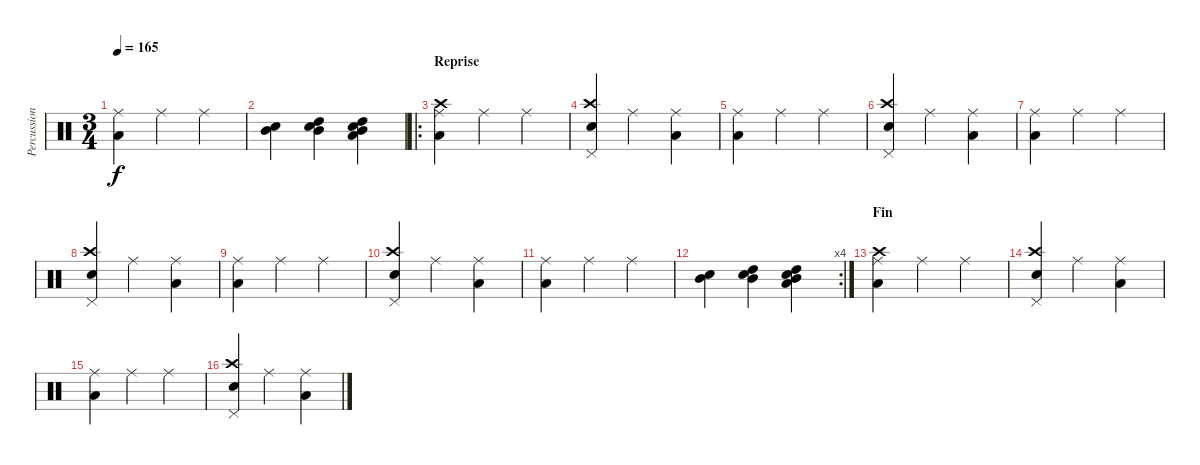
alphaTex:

\track ("Percussions" "Percussion") {instrument percussion}
\staff {score}
\articulation defaults
\ts (3 4)
\tempo 165
\clef neutral
\ks c
("Ride (middle)" "Low Floor Tom (hit)").4{dy f} "Ride (middle)".4 "Ride (middle)".4 |
("Mid Tom (hit)" "Snare (hit) 2").4 ("High Tom (hit)" "Mid Tom (hit)" "Snare (hit) 2").4 ("High Tom (hit)" "Mid Tom (hit)" "Snare (hit) 2" "Low Floor Tom (hit)").4 |
\ro
\section ("" "Reprise")
("Crash high (hit)" "Ride (middle)" "Low Floor Tom (hit)").4 "Ride (middle)".4 "Ride (middle)".4 |
("Crash high (hit)" "Snare (hit) 2" "Pedal Hi-Hat (hit)").4 "Ride (middle)".4 ("Ride (middle)" "Low Floor Tom (hit)").4 |
("Ride (middle)" "Low Floor Tom (hit)").4 "Ride (middle)".4 "Ride (middle)".4 |
("Crash high (hit)" "Snare (hit) 2" "Pedal Hi-Hat (hit)").4 "Ride (middle)".4 ("Ride (middle)" "Low Floor Tom (hit)").4 |
("Ride (middle)" "Low Floor Tom (hit)").4 "Ride (middle)".4 "Ride (middle)".4 |
("Crash high (hit)" "Snare (hit) 2" "Pedal Hi-Hat (hit)").4 "Ride (middle)".4 ("Ride (middle)" "Low Floor Tom (hit)").4 |
("Ride (middle)" "Low Floor Tom (hit)").4 "Ride (middle)".4 "Ride (middle)".4 |
("Crash high (hit)" "Snare (hit) 2" "Pedal Hi-Hat (hit)").4 "Ride (middle)".4 ("Ride (middle)" "Low Floor Tom (hit)").4 |
("Ride (middle)" "Low Floor Tom (hit)").4 "Ride (middle)".4 "Ride (middle)".4 |
\rc 4
("Mid Tom (hit)" "Snare (hit) 2").4 ("High Tom (hit)" "Mid Tom (hit)" "Snare (hit) 2").4 ("High Tom (hit)" "Mid Tom (hit)" "Snare (hit) 2" "Low Floor Tom (hit)").4 |
\section ("" "Fin")
("Crash high (hit)" "Ride (middle)" "Low Floor Tom (hit)").4 "Ride (middle)".4 "Ride (middle)".4 |
("Crash high (hit)" "Snare (hit) 2" "Pedal Hi-Hat (hit)").4 "Ride (middle)".4 ("Ride (middle)" "Low Floor Tom (hit)").4 |
("Ride (middle)" "Low Floor Tom (hit)").4 "Ride (middle)".4 "Ride (middle)".4 |
("Crash high (hit)" "Snare (hit) 2" "Pedal Hi-Hat (hit)").4 "Ride (middle)".4 ("Ride (middle)" "Low Floor Tom (hit)").4
